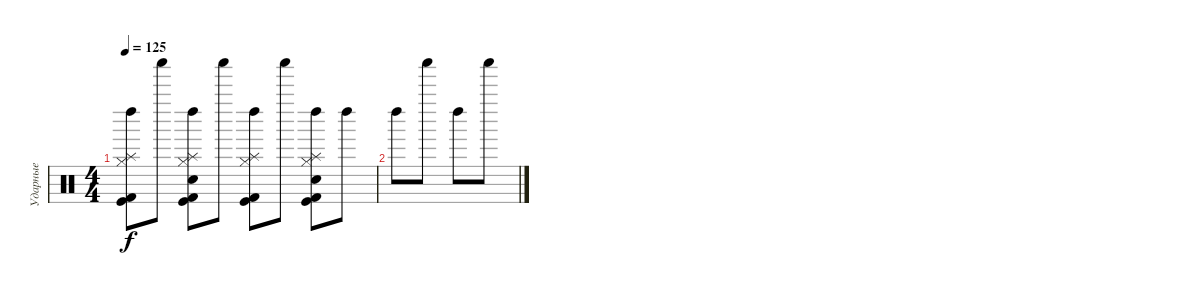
\track ("Ударные" "Ударные") {instrument percussion}
\staff {score}
\articulation defaults
\ts (4 4)
\tempo 125
\clef neutral
\ks c
("Kick (hit)" "Kick (hit) 2" "Hi-Hat (closed)" "Left Maraca (hit)" "Splash (hit)").8{dy f} "Shaker (hit)".8 ("Kick (hit)" "Hand Clap (hit)" "Kick (hit) 2" "Hi-Hat (closed)" "Left Maraca (hit)" "Splash (hit)").8 "Shaker (hit)".8 ("Kick (hit)" "Kick (hit) 2" "Hi-Hat (closed)" "Left Maraca (hit)" "Splash (hit)").8 "Shaker (hit)".8 ("Kick (hit)" "Hand Clap (hit)" "Kick (hit) 2" "Hi-Hat (closed)" "Left Maraca (hit)" "Splash (hit)").8 "Left Maraca (hit)".8 |
"Left Maraca (hit)".8 "Shaker (hit)".8 "Left Maraca (hit)".8 "Shaker (hit)".8
